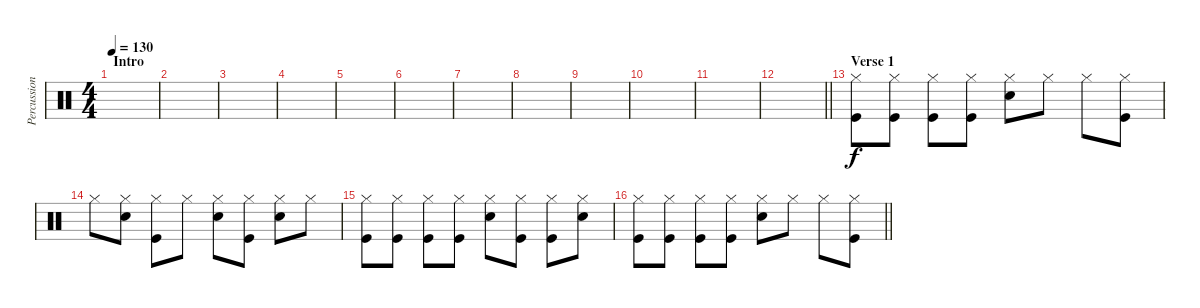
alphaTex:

\track ("Percussion" "Percussion") {instrument percussion}
\staff {score}
\articulation defaults
\ts (4 4)
\section ("" "Intro")
\tempo 130
\clef neutral
\ks c
|
|
|
|
|
|
|
|
|
|
|
\barLineRight lightlight
|
\section ("" "Verse 1")
("Hi-Hat (closed)" "Kick (hit)").8 ("Hi-Hat (closed)" "Kick (hit)").8 ("Hi-Hat (closed)" "Kick (hit)").8 ("Hi-Hat (closed)" "Kick (hit)").8 ("Hi-Hat (closed)" "Electric Snare (hit)").8 "Hi-Hat (closed)".8 "Hi-Hat (closed)".8 ("Hi-Hat (closed)" "Kick (hit)").8 |
"Hi-Hat (closed)".8 ("Hi-Hat (closed)" "Electric Snare (hit)").8 ("Hi-Hat (closed)" "Kick (hit)").8 "Hi-Hat (closed)".8 ("Hi-Hat (closed)" "Electric Snare (hit)").8 ("Hi-Hat (closed)" "Kick (hit)").8 ("Hi-Hat (closed)" "Electric Snare (hit)").8 "Hi-Hat (closed)".8 |
("Hi-Hat (closed)" "Kick (hit)").8 ("Hi-Hat (closed)" "Kick (hit)").8 ("Hi-Hat (closed)" "Kick (hit)").8 ("Hi-Hat (closed)" "Kick (hit)").8 ("Hi-Hat (closed)" "Electric Snare (hit)").8 ("Hi-Hat (closed)" "Kick (hit)").8 ("Hi-Hat (closed)" "Kick (hit)").8 ("Hi-Hat (closed)" "Electric Snare (hit)").8 |
\barLineRight lightlight
("Hi-Hat (closed)" "Kick (hit)").8 ("Hi-Hat (closed)" "Kick (hit)").8 ("Hi-Hat (closed)" "Kick (hit)").8 ("Hi-Hat (closed)" "Kick (hit)").8 ("Hi-Hat (closed)" "Electric Snare (hit)").8 "Hi-Hat (closed)".8 "Hi-Hat (closed)".8 ("Hi-Hat (closed)" "Kick (hit)").8
